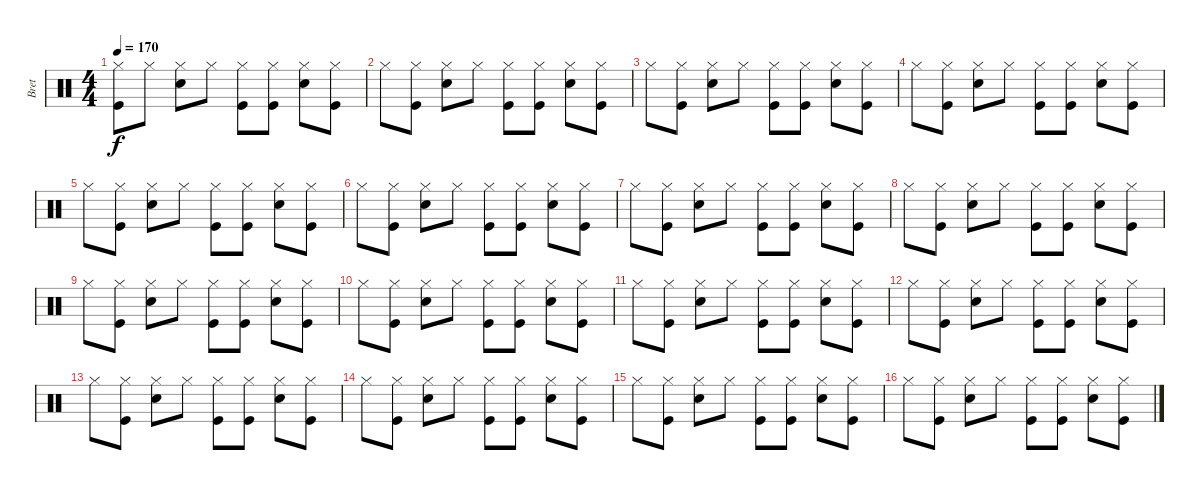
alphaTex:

\track ("Bret" "Bret") {instrument percussion}
\staff {score}
\articulation defaults
\ts (4 4)
\tempo 170
\clef neutral
\ks c
("Hi-Hat (closed)" "Kick (hit)").8{dy f} "Hi-Hat (closed)".8 ("Hi-Hat (closed)" "Electric Snare (hit)").8 "Hi-Hat (closed)".8 ("Hi-Hat (closed)" "Kick (hit)").8 ("Hi-Hat (closed)" "Kick (hit)").8 ("Hi-Hat (closed)" "Electric Snare (hit)").8 ("Hi-Hat (closed)" "Kick (hit)").8 |
"Hi-Hat (closed)".8 ("Hi-Hat (closed)" "Kick (hit)").8 ("Hi-Hat (closed)" "Electric Snare (hit)").8 "Hi-Hat (closed)".8 ("Hi-Hat (closed)" "Kick (hit)").8 ("Hi-Hat (closed)" "Kick (hit)").8 ("Hi-Hat (closed)" "Electric Snare (hit)").8 ("Hi-Hat (closed)" "Kick (hit)").8 |
"Hi-Hat (closed)".8 ("Hi-Hat (closed)" "Kick (hit)").8 ("Hi-Hat (closed)" "Electric Snare (hit)").8 "Hi-Hat (closed)".8 ("Hi-Hat (closed)" "Kick (hit)").8 ("Hi-Hat (closed)" "Kick (hit)").8 ("Hi-Hat (closed)" "Electric Snare (hit)").8 ("Hi-Hat (closed)" "Kick (hit)").8 |
"Hi-Hat (closed)".8 ("Hi-Hat (closed)" "Kick (hit)").8 ("Hi-Hat (closed)" "Electric Snare (hit)").8 "Hi-Hat (closed)".8 ("Hi-Hat (closed)" "Kick (hit)").8 ("Hi-Hat (closed)" "Kick (hit)").8 ("Hi-Hat (closed)" "Electric Snare (hit)").8 ("Hi-Hat (closed)" "Kick (hit)").8 |
"Hi-Hat (closed)".8 ("Hi-Hat (closed)" "Kick (hit)").8 ("Hi-Hat (closed)" "Electric Snare (hit)").8 "Hi-Hat (closed)".8 ("Hi-Hat (closed)" "Kick (hit)").8 ("Hi-Hat (closed)" "Kick (hit)").8 ("Hi-Hat (closed)" "Electric Snare (hit)").8 ("Hi-Hat (closed)" "Kick (hit)").8 |
"Hi-Hat (closed)".8 ("Hi-Hat (closed)" "Kick (hit)").8 ("Hi-Hat (closed)" "Electric Snare (hit)").8 "Hi-Hat (closed)".8 ("Hi-Hat (closed)" "Kick (hit)").8 ("Hi-Hat (closed)" "Kick (hit)").8 ("Hi-Hat (closed)" "Electric Snare (hit)").8 ("Hi-Hat (closed)" "Kick (hit)").8 |
"Hi-Hat (closed)".8 ("Hi-Hat (closed)" "Kick (hit)").8 ("Hi-Hat (closed)" "Electric Snare (hit)").8 "Hi-Hat (closed)".8 ("Hi-Hat (closed)" "Kick (hit)").8 ("Hi-Hat (closed)" "Kick (hit)").8 ("Hi-Hat (closed)" "Electric Snare (hit)").8 ("Hi-Hat (closed)" "Kick (hit)").8 |
"Hi-Hat (closed)".8 ("Hi-Hat (closed)" "Kick (hit)").8 ("Hi-Hat (closed)" "Electric Snare (hit)").8 "Hi-Hat (closed)".8 ("Hi-Hat (closed)" "Kick (hit)").8 ("Hi-Hat (closed)" "Kick (hit)").8 ("Hi-Hat (closed)" "Electric Snare (hit)").8 ("Hi-Hat (closed)" "Kick (hit)").8 |
"Hi-Hat (closed)".8 ("Hi-Hat (closed)" "Kick (hit)").8 ("Hi-Hat (closed)" "Electric Snare (hit)").8 "Hi-Hat (closed)".8 ("Hi-Hat (closed)" "Kick (hit)").8 ("Hi-Hat (closed)" "Kick (hit)").8 ("Hi-Hat (closed)" "Electric Snare (hit)").8 ("Hi-Hat (closed)" "Kick (hit)").8 |
"Hi-Hat (closed)".8 ("Hi-Hat (closed)" "Kick (hit)").8 ("Hi-Hat (closed)" "Electric Snare (hit)").8 "Hi-Hat (closed)".8 ("Hi-Hat (closed)" "Kick (hit)").8 ("Hi-Hat (closed)" "Kick (hit)").8 ("Hi-Hat (closed)" "Electric Snare (hit)").8 ("Hi-Hat (closed)" "Kick (hit)").8 |
"Hi-Hat (closed)".8 ("Hi-Hat (closed)" "Kick (hit)").8 ("Hi-Hat (closed)" "Electric Snare (hit)").8 "Hi-Hat (closed)".8 ("Hi-Hat (closed)" "Kick (hit)").8 ("Hi-Hat (closed)" "Kick (hit)").8 ("Hi-Hat (closed)" "Electric Snare (hit)").8 ("Hi-Hat (closed)" "Kick (hit)").8 |
"Hi-Hat (closed)".8 ("Hi-Hat (closed)" "Kick (hit)").8 ("Hi-Hat (closed)" "Electric Snare (hit)").8 "Hi-Hat (closed)".8 ("Hi-Hat (closed)" "Kick (hit)").8 ("Hi-Hat (closed)" "Kick (hit)").8 ("Hi-Hat (closed)" "Electric Snare (hit)").8 ("Hi-Hat (closed)" "Kick (hit)").8 |
"Hi-Hat (closed)".8 ("Hi-Hat (closed)" "Kick (hit)").8 ("Hi-Hat (closed)" "Electric Snare (hit)").8 "Hi-Hat (closed)".8 ("Hi-Hat (closed)" "Kick (hit)").8 ("Hi-Hat (closed)" "Kick (hit)").8 ("Hi-Hat (closed)" "Electric Snare (hit)").8 ("Hi-Hat (closed)" "Kick (hit)").8 |
"Hi-Hat (closed)".8 ("Hi-Hat (closed)" "Kick (hit)").8 ("Hi-Hat (closed)" "Electric Snare (hit)").8 "Hi-Hat (closed)".8 ("Hi-Hat (closed)" "Kick (hit)").8 ("Hi-Hat (closed)" "Kick (hit)").8 ("Hi-Hat (closed)" "Electric Snare (hit)").8 ("Hi-Hat (closed)" "Kick (hit)").8 |
"Hi-Hat (closed)".8 ("Hi-Hat (closed)" "Kick (hit)").8 ("Hi-Hat (closed)" "Electric Snare (hit)").8 "Hi-Hat (closed)".8 ("Hi-Hat (closed)" "Kick (hit)").8 ("Hi-Hat (closed)" "Kick (hit)").8 ("Hi-Hat (closed)" "Electric Snare (hit)").8 ("Hi-Hat (closed)" "Kick (hit)").8 |
"Hi-Hat (closed)".8 ("Hi-Hat (closed)" "Kick (hit)").8 ("Hi-Hat (closed)" "Electric Snare (hit)").8 "Hi-Hat (closed)".8 ("Hi-Hat (closed)" "Kick (hit)").8 ("Hi-Hat (closed)" "Kick (hit)").8 ("Hi-Hat (closed)" "Electric Snare (hit)").8 ("Hi-Hat (closed)" "Kick (hit)").8
